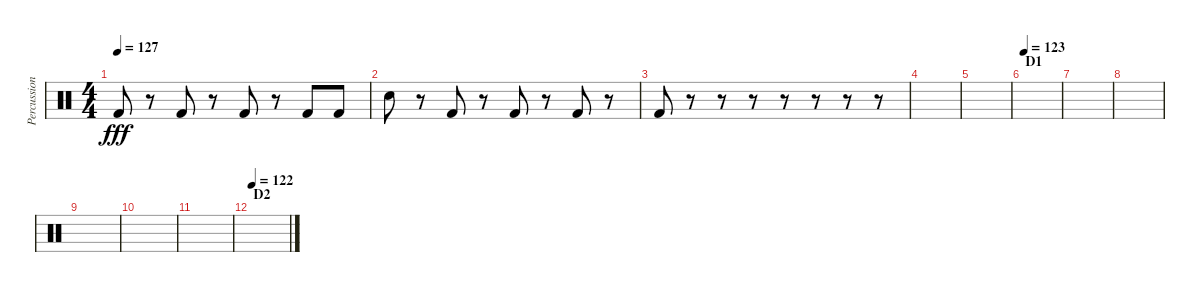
\track ("Percussion" "Percussion") {instrument percussion}
\staff {score}
\articulation defaults
\ts (4 4)
\tempo 127
\clef neutral
\ks c "Kick (hit) 2".8{dy fff}
r.8 "Kick (hit) 2".8 r.8 "Kick (hit) 2".8 r.8 "Kick (hit) 2".8 "Kick (hit) 2".8 |
"Electric Snare (hit)".8 r.8 "Kick (hit) 2".8 r.8 "Kick (hit) 2".8 r.8 "Kick (hit) 2".8 r.8 |
"Kick (hit) 2".8 r.8 r.8 r.8 r.8 r.8 r.8 r.8 |
|
|
\section ("" "D1")
\tempo 123
|
|
|
|
|
|
\section ("" "D2")
\tempo 122
